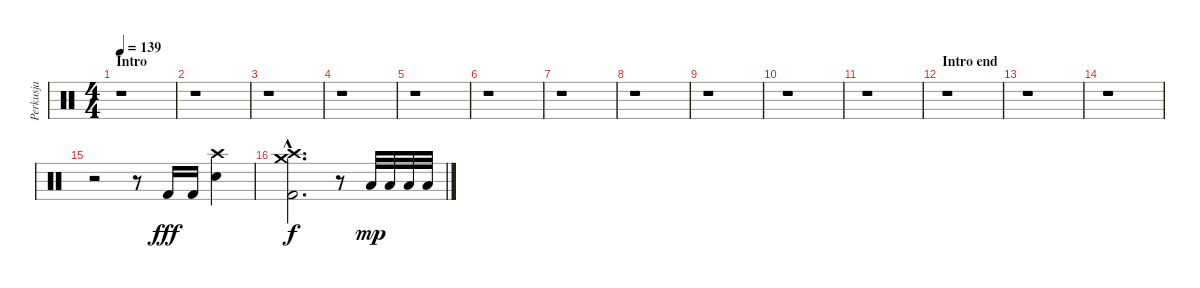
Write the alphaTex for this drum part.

\track ("Perkusja" "Perkusja") {instrument percussion}
\staff {score}
\articulation defaults
\ts (4 4)
\section ("" "Intro")
\tempo 139
\clef neutral
\ks c
r.1{dy fff} |
r.1 |
r.1 |
r.1 |
r.1 |
r.1 |
r.1 |
r.1 |
r.1 |
r.1 |
r.1 |
\section ("" "Intro end")
r.1 |
r.1 |
r.1 |
r.2 r.8 "Kick (hit) 2".16 "Kick (hit) 2".16 ("Crash high (hit)" "Snare (hit) 2").4 |
("Crash medium (hit)"{hac} "Crash high (hit)"{hac} "Kick (hit) 2"{hac}).2{d dy f} r.8 "Low Floor Tom (hit)".32{dy mp} "Low Floor Tom (hit)".32 "Low Floor Tom (hit)".32 "Low Floor Tom (hit)".32
